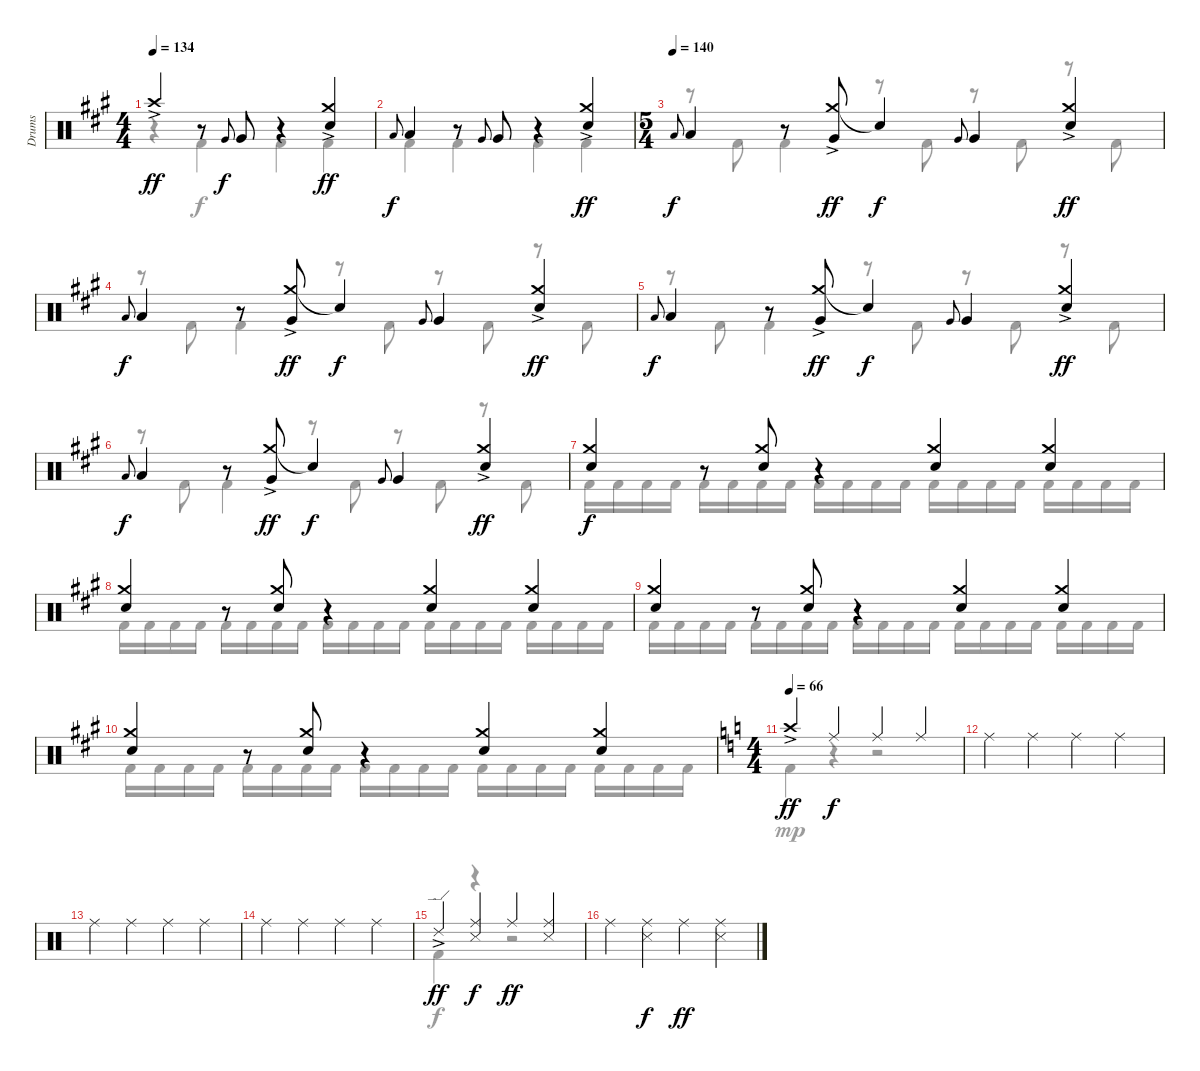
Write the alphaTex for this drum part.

\track ("Drums" "Drums") {instrument percussion}
\staff {score}
\articulation defaults
\voice
\ts (4 4)
\tempo 134
\clef neutral
\ks a "Crash high (hit)"{ac}.4{dy ff}
r.8 "Very Low Tom (hit)".8{gr onbeat dy f} "Very Low Tom (hit)".8 r.4 ("Crash medium (hit)"{ac} "Electric Snare (hit)").4{dy ff} |
"Low Tom (hit)".8{gr onbeat dy f} "Low Tom (hit)".4 r.8 "Very Low Tom (hit)".8{gr onbeat} "Very Low Tom (hit)".8 r.4 ("Crash medium (hit)"{ac} "Electric Snare (hit)").4{dy ff} |
\ts (5 4)
\tempo (140)
"Low Tom (hit)".8{gr onbeat dy f} "Low Tom (hit)".4 r.8 ("Crash medium (hit)"{ac} "Very Low Tom (hit)").8{dy ff} "Snare (hit)"{t}.4{dy f} "Very Low Tom (hit)".8{gr onbeat} "Very Low Tom (hit)".4 ("Crash medium (hit)"{ac} "Electric Snare (hit)").4{dy ff} |
"Low Tom (hit)".8{gr onbeat dy f} "Low Tom (hit)".4 r.8 ("Crash medium (hit)"{ac} "Very Low Tom (hit)").8{dy ff} "Snare (hit)"{t}.4{dy f} "Very Low Tom (hit)".8{gr onbeat} "Very Low Tom (hit)".4 ("Crash medium (hit)"{ac} "Electric Snare (hit)").4{dy ff} |
"Low Tom (hit)".8{gr onbeat dy f} "Low Tom (hit)".4 r.8 ("Crash medium (hit)"{ac} "Very Low Tom (hit)").8{dy ff} "Snare (hit)"{t}.4{dy f} "Very Low Tom (hit)".8{gr onbeat} "Very Low Tom (hit)".4 ("Crash medium (hit)"{ac} "Electric Snare (hit)").4{dy ff} |
"Low Tom (hit)".8{gr onbeat dy f} "Low Tom (hit)".4 r.8 ("Crash medium (hit)"{ac} "Very Low Tom (hit)").8{dy ff} "Snare (hit)"{t}.4{dy f} "Very Low Tom (hit)".8{gr onbeat} "Very Low Tom (hit)".4 ("Crash medium (hit)"{ac} "Electric Snare (hit)").4{dy ff} |
("Crash medium (hit)" "Electric Snare (hit)").4{dy f} r.8 ("Crash medium (hit)" "Electric Snare (hit)").8 r.4 ("Crash medium (hit)" "Electric Snare (hit)").4 ("Crash medium (hit)" "Electric Snare (hit)").4 |
("Crash medium (hit)" "Electric Snare (hit)").4 r.8 ("Crash medium (hit)" "Electric Snare (hit)").8 r.4 ("Crash medium (hit)" "Electric Snare (hit)").4 ("Crash medium (hit)" "Electric Snare (hit)").4 |
("Crash medium (hit)" "Electric Snare (hit)").4 r.8 ("Crash medium (hit)" "Electric Snare (hit)").8 r.4 ("Crash medium (hit)" "Electric Snare (hit)").4 ("Crash medium (hit)" "Electric Snare (hit)").4 |
("Crash medium (hit)" "Electric Snare (hit)").4 r.8 ("Crash medium (hit)" "Electric Snare (hit)").8 r.4 ("Crash medium (hit)" "Electric Snare (hit)").4 ("Crash medium (hit)" "Electric Snare (hit)").4 |
\ts (4 4)
\tempo 66
\ks c "Crash high (hit)"{ac}.4{dy ff} "Ride (middle)".4{dy f} "Ride (middle)".4 "Ride (middle)".4
|
"Ride (middle)".4 "Ride (middle)".4 "Ride (middle)".4 "Ride (middle)".4 |
"Ride (middle)".4 "Ride (middle)".4 "Ride (middle)".4 "Ride (middle)".4 |
"Ride (middle)".4 "Ride (middle)".4 "Ride (middle)".4 "Ride (middle)".4 |
"Ride (edge) 2"{ac}.4{dy ff} ("Ride (middle)" "Snare (side stick) 3").4{dy f} "Ride (middle)".4{dy ff} ("Ride (middle)" "Snare (side stick) 3").4 |
"Ride (middle)".4 ("Ride (middle)" "Snare (side stick) 3").4{dy f} "Ride (middle)".4{dy ff} ("Ride (middle)" "Snare (side stick) 3").4
\voice
\clef neutral
\ottava regular
\simile none
\ks a
r.4{dy f} "Kick (hit) 2".4 "Kick (hit) 2".4 "Kick (hit) 2".4 |
"Kick (hit) 2".4 "Kick (hit) 2".4 "Kick (hit) 2".4 "Kick (hit) 2".4 |
r.8 "Kick (hit) 2".8 "Kick (hit) 2".4 r.8 "Kick (hit) 2".8 r.8 "Kick (hit) 2".8 r.8 "Kick (hit) 2".8 |
r.8 "Kick (hit) 2".8 "Kick (hit) 2".4 r.8 "Kick (hit) 2".8 r.8 "Kick (hit) 2".8 r.8 "Kick (hit) 2".8 |
r.8 "Kick (hit) 2".8 "Kick (hit) 2".4 r.8 "Kick (hit) 2".8 r.8 "Kick (hit) 2".8 r.8 "Kick (hit) 2".8 |
r.8 "Kick (hit) 2".8 "Kick (hit) 2".4 r.8 "Kick (hit) 2".8 r.8 "Kick (hit) 2".8 r.8 "Kick (hit) 2".8 |
"Kick (hit) 2".16 "Kick (hit) 2".16 "Kick (hit) 2".16 "Kick (hit) 2".16 "Kick (hit) 2".16 "Kick (hit) 2".16 "Kick (hit) 2".16 "Kick (hit) 2".16 "Kick (hit) 2".16 "Kick (hit) 2".16 "Kick (hit) 2".16 "Kick (hit) 2".16 "Kick (hit) 2".16 "Kick (hit) 2".16 "Kick (hit) 2".16 "Kick (hit) 2".16 "Kick (hit) 2".16 "Kick (hit) 2".16 "Kick (hit) 2".16 "Kick (hit) 2".16 |
"Kick (hit) 2".16 "Kick (hit) 2".16 "Kick (hit) 2".16 "Kick (hit) 2".16 "Kick (hit) 2".16 "Kick (hit) 2".16 "Kick (hit) 2".16 "Kick (hit) 2".16 "Kick (hit) 2".16 "Kick (hit) 2".16 "Kick (hit) 2".16 "Kick (hit) 2".16 "Kick (hit) 2".16 "Kick (hit) 2".16 "Kick (hit) 2".16 "Kick (hit) 2".16 "Kick (hit) 2".16 "Kick (hit) 2".16 "Kick (hit) 2".16 "Kick (hit) 2".16 |
"Kick (hit) 2".16 "Kick (hit) 2".16 "Kick (hit) 2".16 "Kick (hit) 2".16 "Kick (hit) 2".16 "Kick (hit) 2".16 "Kick (hit) 2".16 "Kick (hit) 2".16 "Kick (hit) 2".16 "Kick (hit) 2".16 "Kick (hit) 2".16 "Kick (hit) 2".16 "Kick (hit) 2".16 "Kick (hit) 2".16 "Kick (hit) 2".16 "Kick (hit) 2".16 "Kick (hit) 2".16 "Kick (hit) 2".16 "Kick (hit) 2".16 "Kick (hit) 2".16 |
"Kick (hit) 2".16 "Kick (hit) 2".16 "Kick (hit) 2".16 "Kick (hit) 2".16 "Kick (hit) 2".16 "Kick (hit) 2".16 "Kick (hit) 2".16 "Kick (hit) 2".16 "Kick (hit) 2".16 "Kick (hit) 2".16 "Kick (hit) 2".16 "Kick (hit) 2".16 "Kick (hit) 2".16 "Kick (hit) 2".16 "Kick (hit) 2".16 "Kick (hit) 2".16 "Kick (hit) 2".16 "Kick (hit) 2".16 "Kick (hit) 2".16 "Kick (hit) 2".16 |
\ks c "Kick (hit) 2".4{dy mp}
r.4 r.2 |
|
|
|
"Kick (hit) 2".4{dy f} r.4 r.2 |
